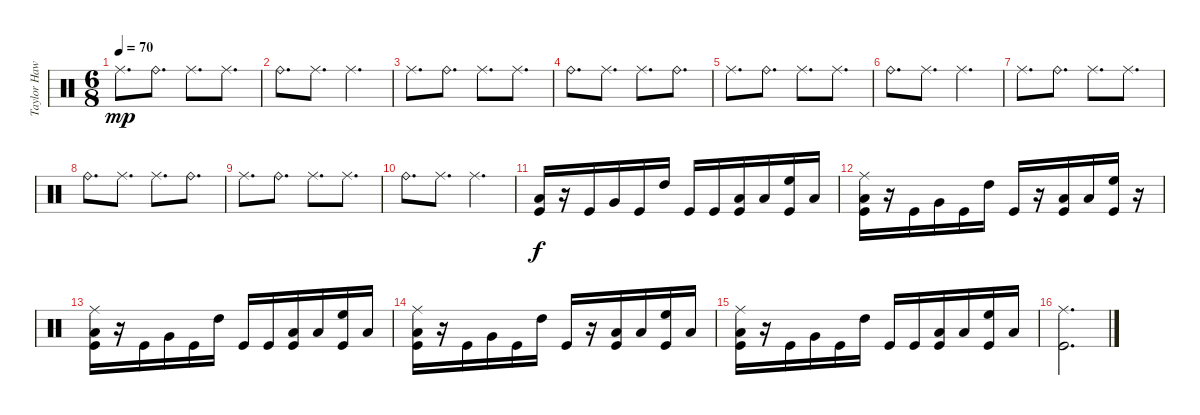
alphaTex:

\track ("Taylor Hawkins - Drums" "Taylor Haw") {instrument percussion}
\staff {score}
\articulation defaults
\ts (6 8)
\tempo 70
\clef neutral
\ks c "Ride (middle)".8{d dy mp} "Ride (bell)".8{d} "Ride (middle)".8{d} "Ride (middle)".8{d}
|
"Ride (bell)".8{d} "Ride (middle)".8{d} "Ride (middle)".4{d} |
"Ride (middle)".8{d} "Ride (bell)".8{d} "Ride (middle)".8{d} "Ride (middle)".8{d} |
"Ride (bell)".8{d} "Ride (middle)".8{d} "Ride (middle)".8{d} "Ride (bell)".8{d} |
"Ride (middle)".8{d} "Ride (bell)".8{d} "Ride (middle)".8{d} "Ride (middle)".8{d} |
"Ride (bell)".8{d} "Ride (middle)".8{d} "Ride (middle)".4{d} |
"Ride (middle)".8{d} "Ride (bell)".8{d} "Ride (middle)".8{d} "Ride (middle)".8{d} |
"Ride (bell)".8{d} "Ride (middle)".8{d} "Ride (middle)".8{d} "Ride (bell)".8{d} |
"Ride (middle)".8{d} "Ride (bell)".8{d} "Ride (middle)".8{d} "Ride (middle)".8{d} |
"Ride (bell)".8{d} "Ride (middle)".8{d} "Ride (middle)".4{d} |
("Low Tom (hit)" "Kick (hit)").16{dy f} r.16 "Kick (hit)".16 "Very Low Tom (hit)".16 "Kick (hit)".16 "High Tom (hit)".16 "Kick (hit)".16 "Kick (hit)".16 ("Low Floor Tom (hit)" "Kick (hit)").16 "Low Floor Tom (hit)".16 ("High Floor Tom (hit)" "Kick (hit)").16 "Low Floor Tom (hit)".16 |
("Ride (middle)" "Low Tom (hit)" "Kick (hit)").16 r.16 "Kick (hit)".16 "Very Low Tom (hit)".16 "Kick (hit)".16 "High Tom (hit)".16 "Kick (hit)".16 r.16 ("Low Floor Tom (hit)" "Kick (hit)").16 "Low Floor Tom (hit)".16 ("High Floor Tom (hit)" "Kick (hit)").16 r.16 |
("Ride (middle)" "Low Tom (hit)" "Kick (hit)").16 r.16 "Kick (hit)".16 "Very Low Tom (hit)".16 "Kick (hit)".16 "High Tom (hit)".16 "Kick (hit)".16 "Kick (hit)".16 ("Low Floor Tom (hit)" "Kick (hit)").16 "Low Floor Tom (hit)".16 ("High Floor Tom (hit)" "Kick (hit)").16 "Low Floor Tom (hit)".16 |
("Ride (middle)" "Low Tom (hit)" "Kick (hit)").16 r.16 "Kick (hit)".16 "Very Low Tom (hit)".16 "Kick (hit)".16 "High Tom (hit)".16 "Kick (hit)".16 r.16 ("Low Floor Tom (hit)" "Kick (hit)").16 "Low Floor Tom (hit)".16 ("High Floor Tom (hit)" "Kick (hit)").16 "Low Floor Tom (hit)".16 |
("Ride (middle)" "Low Tom (hit)" "Kick (hit)").16 r.16 "Kick (hit)".16 "Very Low Tom (hit)".16 "Kick (hit)".16 "High Tom (hit)".16 "Kick (hit)".16 "Kick (hit)".16 ("Low Floor Tom (hit)" "Kick (hit)").16 "Low Floor Tom (hit)".16 ("High Floor Tom (hit)" "Kick (hit)").16 "Low Floor Tom (hit)".16 |
("Ride (middle)" "Kick (hit)").2{d}
